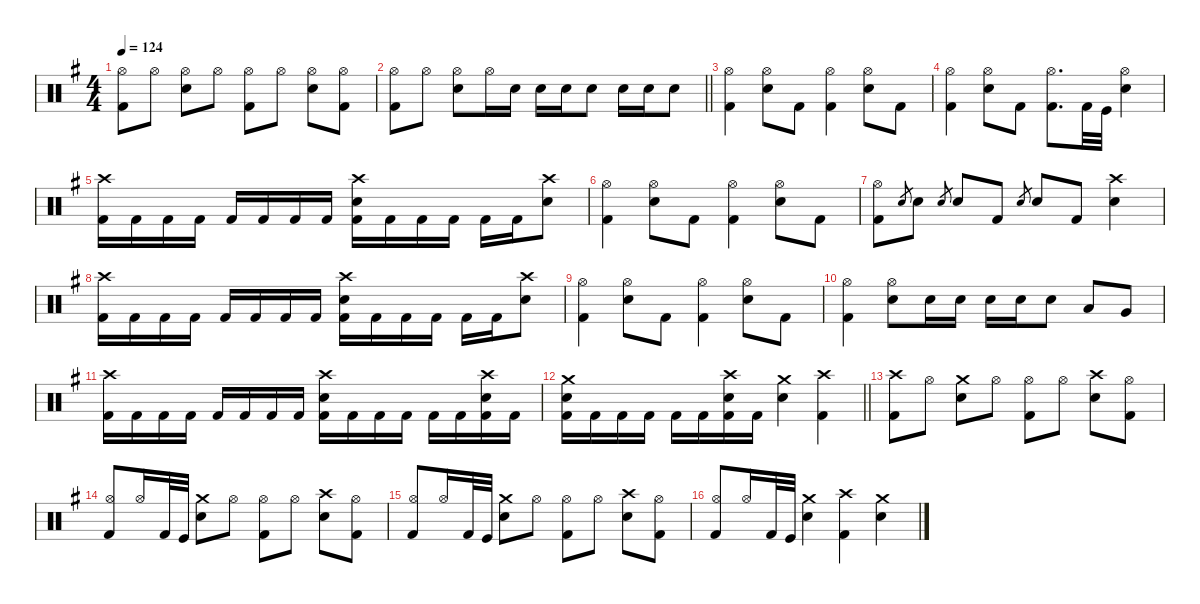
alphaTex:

\defaultSystemsLayout 4
\hideDynamics
\bracketExtendMode nobrackets
\singleTrackTrackNamePolicy hidden
\multiTrackTrackNamePolicy hidden
\otherSystemsTrackNameOrientation horizontal
\track ("Drums" "drm.") {defaultSystemsLayout 4 instrument percussion}
\staff {score}
\articulation defaults
\ts (4 4)
\beaming (8 2 2 2 2)
\tempo 124
\clef neutral
\ks eminor
("Hi-Hat (open)"{acc forcenatural} "Kick (hit) 2"{acc forcenatural}).8{dy mf beam Down} "Hi-Hat (open)"{acc forcenatural}.8{beam Down} ("Hi-Hat (open)"{acc forcenatural} "Snare (hit) 2"{acc forcenatural}).8{beam Down} "Hi-Hat (open)"{acc forcenatural}.8{beam Down} ("Hi-Hat (open)"{acc forcenatural} "Kick (hit) 2"{acc forcenatural}).8{beam Down} "Hi-Hat (open)"{acc forcenatural}.8{beam Down} ("Hi-Hat (open)"{acc forcenatural} "Snare (hit) 2"{acc forcenatural}).8{beam Down} ("Hi-Hat (open)"{acc forcenatural} "Kick (hit) 2"{acc forcenatural}).8{dy f beam Down} |
\barLineRight lightlight
("Hi-Hat (open)"{acc forcenatural} "Kick (hit) 2"{acc forcenatural}).8{beam Down} "Hi-Hat (open)"{acc forcenatural}.8{dy mf beam Down} ("Hi-Hat (open)"{acc forcenatural} "Snare (hit) 2"{acc forcenatural}).8{beam Down} "Hi-Hat (open)"{acc forcenatural}.16{beam Down} "Snare (hit) 2"{acc forcenatural}.16{dy ff beam Down} "Snare (hit) 2"{acc forcenatural}.16{beam Down} "Snare (hit) 2"{acc forcenatural}.16{dy f beam Down} "Snare (hit) 2"{acc forcenatural}.8{dy ff beam Down} "Snare (hit) 2"{acc forcenatural}.16{beam Down} "Snare (hit) 2"{acc forcenatural}.16{dy f beam Down} "Snare (hit) 2"{acc forcenatural}.8{dy ff beam Down} |
("Hi-Hat (open)"{acc forcenatural} "Kick (hit) 2"{acc forcenatural}).4{dy mf beam Down} ("Hi-Hat (open)"{acc forcenatural} "Snare (hit) 2"{acc forcenatural}).8{beam Down} "Kick (hit) 2"{acc forcenatural}.8{dy ff beam Down} ("Hi-Hat (open)"{acc forcenatural} "Kick (hit) 2"{acc forcenatural}).4{dy mf beam Down} ("Hi-Hat (open)"{acc forcenatural} "Snare (hit) 2"{acc forcenatural}).8{beam Down} "Kick (hit) 2"{acc forcenatural}.8{dy ff beam Down} |
("Hi-Hat (open)"{acc forcenatural} "Kick (hit) 2"{acc forcenatural}).4{dy mf beam Down} ("Hi-Hat (open)"{acc forcenatural} "Snare (hit) 2"{acc forcenatural}).8{beam Down} "Kick (hit) 2"{acc forcenatural}.8{dy ff beam Down} ("Hi-Hat (open)"{acc forcenatural} "Kick (hit) 2"{acc forcenatural}).8{d dy mf beam Down} "Kick (hit) 2"{acc forcenatural}.32{dy ff beam Down} "Kick (hit)"{acc forcenatural}.32{beam Down} ("Hi-Hat (open)"{acc forcenatural} "Snare (hit) 2"{acc forcenatural}).4{dy mf beam Down} |
("Crash high (hit)"{acc forcenatural} "Kick (hit) 2"{acc forcenatural}).16{beam Down} "Kick (hit) 2"{acc forcenatural}.16{dy ff beam Down} "Kick (hit) 2"{acc forcenatural}.16{beam Down} "Kick (hit) 2"{acc forcenatural}.16{beam Down} "Kick (hit) 2"{acc forcenatural}.16{beam Up} "Kick (hit) 2"{acc forcenatural}.16{beam Up} "Kick (hit) 2"{acc forcenatural}.16{beam Up} "Kick (hit) 2"{acc forcenatural}.16{beam Up} ("Crash high (hit)"{acc forcenatural} "Snare (hit) 2"{acc forcenatural} "Kick (hit) 2"{acc forcenatural}).16{dy mf beam Down} "Kick (hit) 2"{acc forcenatural}.16{dy ff beam Down} "Kick (hit) 2"{acc forcenatural}.16{beam Down} "Kick (hit) 2"{acc forcenatural}.16{beam Down} "Kick (hit) 2"{acc forcenatural}.16{beam Down} "Kick (hit) 2"{acc forcenatural}.16{beam Down} ("Crash high (hit)"{acc forcenatural} "Snare (hit) 2"{acc forcenatural}).8{dy mf beam Down} |
("Hi-Hat (open)"{acc forcenatural} "Kick (hit) 2"{acc forcenatural}).4{beam Down} ("Hi-Hat (open)"{acc forcenatural} "Snare (hit) 2"{acc forcenatural}).8{beam Down} "Kick (hit) 2"{acc forcenatural}.8{dy ff beam Down} ("Hi-Hat (open)"{acc forcenatural} "Kick (hit) 2"{acc forcenatural}).4{dy mf beam Down} ("Hi-Hat (open)"{acc forcenatural} "Snare (hit) 2"{acc forcenatural}).8{beam Down} "Kick (hit) 2"{acc forcenatural}.8{dy ff beam Down} |
("Hi-Hat (open)"{acc forcenatural} "Kick (hit) 2"{acc forcenatural}).8{dy mf beam Down} "Electric Snare (hit)"{acc forcenatural}.8{gr dy mp beam Up} "Snare (hit) 2"{acc forcenatural}.8{dy ff beam Down} "Electric Snare (hit)"{acc forcenatural}.8{gr dy mp beam Up} "Snare (hit) 2"{acc forcenatural}.8{dy ff beam Up} "Kick (hit) 2"{acc forcenatural}.8{beam Up} "Electric Snare (hit)"{acc forcenatural}.8{gr dy mp beam Up} "Snare (hit) 2"{acc forcenatural}.8{dy ff beam Up} "Kick (hit) 2"{acc forcenatural}.8{beam Up} ("Crash high (hit)"{acc forcenatural} "Snare (hit) 2"{acc forcenatural}).4{dy mp beam Down} |
("Crash high (hit)"{acc forcenatural} "Kick (hit) 2"{acc forcenatural}).16{beam Down} "Kick (hit) 2"{acc forcenatural}.16{dy ff beam Down} "Kick (hit) 2"{acc forcenatural}.16{beam Down} "Kick (hit) 2"{acc forcenatural}.16{beam Down} "Kick (hit) 2"{acc forcenatural}.16{beam Up} "Kick (hit) 2"{acc forcenatural}.16{beam Up} "Kick (hit) 2"{acc forcenatural}.16{beam Up} "Kick (hit) 2"{acc forcenatural}.16{beam Up} ("Crash high (hit)"{acc forcenatural} "Snare (hit) 2"{acc forcenatural} "Kick (hit) 2"{acc forcenatural}).16{dy mf beam Down} "Kick (hit) 2"{acc forcenatural}.16{dy ff beam Down} "Kick (hit) 2"{acc forcenatural}.16{beam Down} "Kick (hit) 2"{acc forcenatural}.16{beam Down} "Kick (hit) 2"{acc forcenatural}.16{beam Down} "Kick (hit) 2"{acc forcenatural}.16{beam Down} ("Crash high (hit)"{acc forcenatural} "Snare (hit) 2"{acc forcenatural}).8{dy mf beam Down} |
("Hi-Hat (open)"{acc forcenatural} "Kick (hit) 2"{acc forcenatural}).4{beam Down} ("Hi-Hat (open)"{acc forcenatural} "Snare (hit) 2"{acc forcenatural}).8{beam Down} "Kick (hit) 2"{acc forcenatural}.8{dy ff beam Down} ("Hi-Hat (open)"{acc forcenatural} "Kick (hit) 2"{acc forcenatural}).4{dy mf beam Down} ("Hi-Hat (open)"{acc forcenatural} "Snare (hit) 2"{acc forcenatural}).8{beam Down} "Kick (hit) 2"{acc forcenatural}.8{dy ff beam Down} |
("Hi-Hat (open)"{acc forcenatural} "Kick (hit) 2"{acc forcenatural}).4{dy mf beam Down} ("Hi-Hat (open)"{acc forcenatural} "Snare (hit) 2"{acc forcenatural}).8{beam Down} "Snare (hit) 2"{acc forcenatural}.16{dy p beam Down} "Snare (hit) 2"{acc forcenatural}.16{dy mp beam Down} "Snare (hit) 2"{acc forcenatural}.16{dy mf beam Down} "Snare (hit) 2"{acc forcenatural}.16{dy f beam Down} "Snare (hit) 2"{acc forcenatural}.8{dy ff beam Down} "Low Tom (hit)"{acc forcenatural}.8{dy fff beam Up} "Very Low Tom (hit)"{acc forcenatural}.8{beam Up} |
("Crash high (hit)"{acc forcenatural} "Kick (hit) 2"{acc forcenatural}).16{dy mf beam Down} "Kick (hit) 2"{acc forcenatural}.16{dy ff beam Down} "Kick (hit) 2"{acc forcenatural}.16{beam Down} "Kick (hit) 2"{acc forcenatural}.16{beam Down} "Kick (hit) 2"{acc forcenatural}.16{beam Up} "Kick (hit) 2"{acc forcenatural}.16{beam Up} "Kick (hit) 2"{acc forcenatural}.16{beam Up} "Kick (hit) 2"{acc forcenatural}.16{beam Up} ("Crash high (hit)"{acc forcenatural} "Snare (hit) 2"{acc forcenatural} "Kick (hit) 2"{acc forcenatural}).16{dy mf beam Down} "Kick (hit) 2"{acc forcenatural}.16{dy ff beam Down} "Kick (hit) 2"{acc forcenatural}.16{beam Down} "Kick (hit) 2"{acc forcenatural}.16{beam Down} "Kick (hit) 2"{acc forcenatural}.16{beam Down} "Kick (hit) 2"{acc forcenatural}.16{beam Down} ("Crash high (hit)"{acc forcenatural} "Snare (hit) 2"{acc forcenatural} "Kick (hit) 2"{acc forcenatural}).16{dy mf beam Down} "Kick (hit) 2"{acc forcenatural}.16{dy ff beam Down} |
\barLineRight lightlight
("Crash medium (hit)"{acc forcenatural} "Snare (hit) 2"{acc forcenatural} "Kick (hit) 2"{acc forcenatural}).16{dy mf beam Down} "Kick (hit) 2"{acc forcenatural}.16{dy ff beam Down} "Kick (hit) 2"{acc forcenatural}.16{beam Down} "Kick (hit) 2"{acc forcenatural}.16{beam Down} "Kick (hit) 2"{acc forcenatural}.16{beam Down} "Kick (hit) 2"{acc forcenatural}.16{beam Down} ("Crash high (hit)"{acc forcenatural} "Snare (hit) 2"{acc forcenatural} "Kick (hit) 2"{acc forcenatural}).16{dy mf beam Down} "Kick (hit) 2"{acc forcenatural}.16{dy ff beam Down} ("Crash medium (hit)"{acc forcenatural} "Snare (hit) 2"{acc forcenatural}).4{dy f beam Down} ("Crash high (hit)"{acc forcenatural} "Kick (hit) 2"{acc forcenatural}).4{beam Down} |
("Crash high (hit)"{acc forcenatural} "Kick (hit) 2"{acc forcenatural}).8{dy mf beam Down} "Hi-Hat (open)"{acc forcenatural}.8{beam Down} ("Crash medium (hit)"{acc forcenatural} "Snare (hit) 2"{acc forcenatural}).8{beam Down} "Hi-Hat (open)"{acc forcenatural}.8{beam Down} ("Hi-Hat (open)"{acc forcenatural} "Kick (hit) 2"{acc forcenatural}).8{beam Down} "Hi-Hat (open)"{acc forcenatural}.8{beam Down} ("Crash high (hit)"{acc forcenatural} "Snare (hit) 2"{acc forcenatural}).8{beam Down} ("Hi-Hat (open)"{acc forcenatural} "Kick (hit) 2"{acc forcenatural}).8{beam Down} |
("Hi-Hat (open)"{acc forcenatural} "Kick (hit) 2"{acc forcenatural}).8{beam Up} "Hi-Hat (open)"{acc forcenatural}.16{beam Up} "Kick (hit) 2"{acc forcenatural}.32{dy ff beam Up} "Kick (hit)"{acc forcenatural}.32{beam Up} ("Crash medium (hit)"{acc forcenatural} "Snare (hit) 2"{acc forcenatural}).8{dy mf beam Down} "Hi-Hat (open)"{acc forcenatural}.8{beam Down} ("Hi-Hat (open)"{acc forcenatural} "Kick (hit) 2"{acc forcenatural}).8{beam Down} "Hi-Hat (open)"{acc forcenatural}.8{beam Down} ("Crash high (hit)"{acc forcenatural} "Snare (hit) 2"{acc forcenatural}).8{beam Down} ("Hi-Hat (open)"{acc forcenatural} "Kick (hit) 2"{acc forcenatural}).8{beam Down} |
("Hi-Hat (open)"{acc forcenatural} "Kick (hit) 2"{acc forcenatural}).8{beam Up} "Hi-Hat (open)"{acc forcenatural}.16{beam Up} "Kick (hit) 2"{acc forcenatural}.32{dy ff beam Up} "Kick (hit)"{acc forcenatural}.32{beam Up} ("Crash medium (hit)"{acc forcenatural} "Snare (hit) 2"{acc forcenatural}).8{dy mf beam Down} "Hi-Hat (open)"{acc forcenatural}.8{beam Down} ("Hi-Hat (open)"{acc forcenatural} "Kick (hit) 2"{acc forcenatural}).8{beam Down} "Hi-Hat (open)"{acc forcenatural}.8{beam Down} ("Crash high (hit)"{acc forcenatural} "Snare (hit) 2"{acc forcenatural}).8{beam Down} ("Hi-Hat (open)"{acc forcenatural} "Kick (hit) 2"{acc forcenatural}).8{beam Down} |
("Hi-Hat (open)"{acc forcenatural} "Kick (hit) 2"{acc forcenatural}).8{beam Up} "Hi-Hat (open)"{acc forcenatural}.16{beam Up} "Kick (hit) 2"{acc forcenatural}.32{dy ff beam Up} "Kick (hit)"{acc forcenatural}.32{beam Up} ("Crash medium (hit)"{acc forcenatural} "Snare (hit) 2"{acc forcenatural}).4{dy mf beam Down} ("Crash high (hit)"{acc forcenatural} "Kick (hit) 2"{acc forcenatural}).4{beam Down} ("Crash medium (hit)"{acc forcenatural} "Snare (hit) 2"{acc forcenatural}).4{beam Down}
